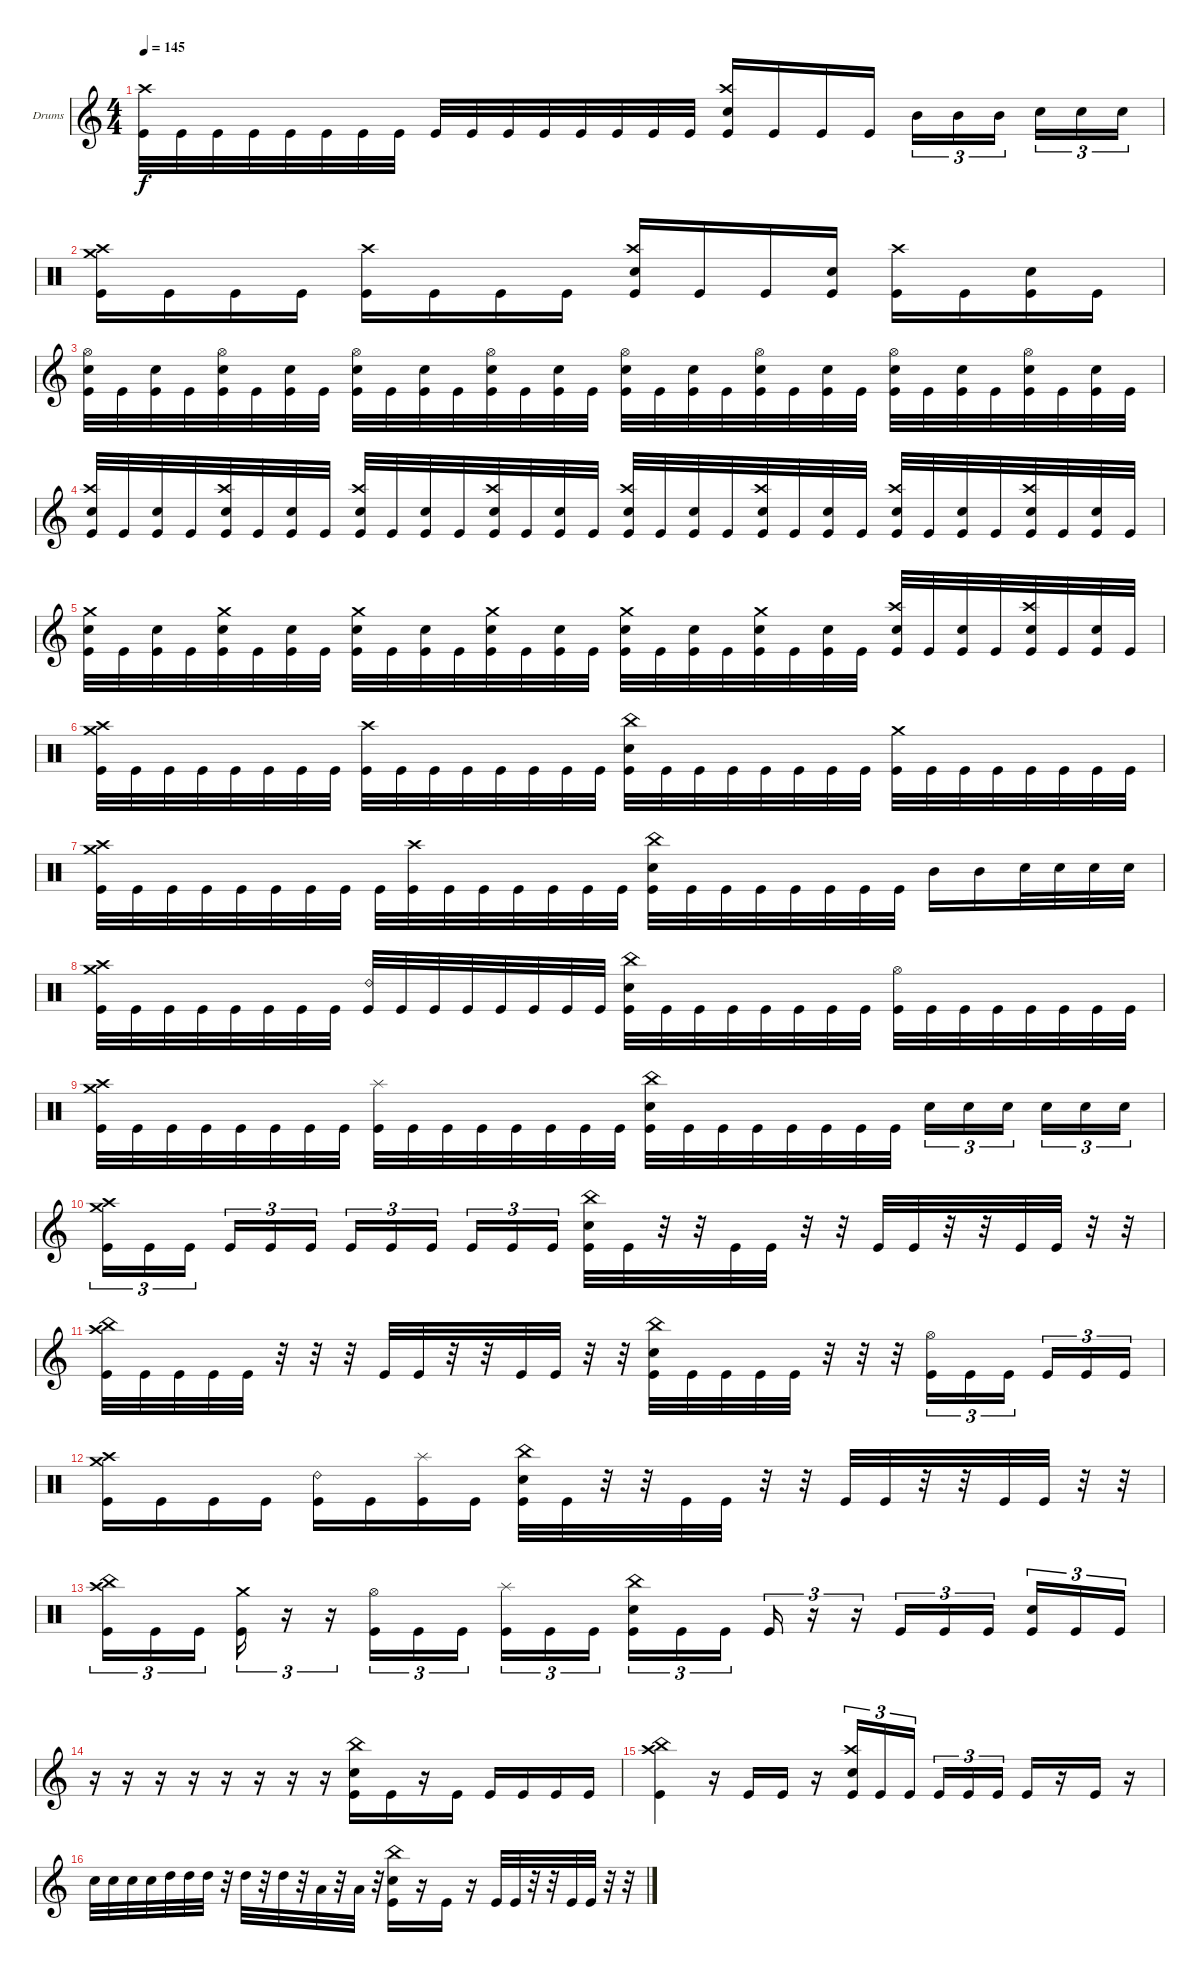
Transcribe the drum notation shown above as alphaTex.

\defaultSystemsLayout 4
\bracketExtendMode groupsimilarinstruments
\firstSystemTrackNameOrientation horizontal
\otherSystemsTrackNameOrientation horizontal
\track ("Drums" "Drums") {instrument percussion}
\staff {score}
\articulation defaults
\ts (4 4)
\tempo 145
\clef g2
\ks c
("Kick (hit)" "Crash high (hit)").32{dy f} "Kick (hit)".32 "Kick (hit)".32 "Kick (hit)".32 "Kick (hit)".32 "Kick (hit)".32 "Kick (hit)".32 "Kick (hit)".32 "Kick (hit)".32 "Kick (hit)".32 "Kick (hit)".32 "Kick (hit)".32 "Kick (hit)".32 "Kick (hit)".32 "Kick (hit)".32 "Kick (hit)".32 ("Kick (hit)" "Snare (hit) 2" "Crash high (hit)").16 "Kick (hit)".16 "Kick (hit)".16 "Kick (hit)".16 "Mid Tom (hit)".16{tu (3 2)} "Mid Tom (hit)".16{tu (3 2)} "Mid Tom (hit)".16{tu (3 2)} "Snare (hit) 2".16{tu (3 2)} "Snare (hit) 2".16{tu (3 2)} "Snare (hit) 2".16{tu (3 2)} |
\clef neutral
("Kick (hit)" "Crash high (hit)" "Crash medium (hit)").16 "Kick (hit)".16 "Kick (hit)".16 "Kick (hit)".16 ("Kick (hit)" "Crash high (hit)").16 "Kick (hit)".16 "Kick (hit)".16 "Kick (hit)".16 ("Kick (hit)" "Crash high (hit)" "Snare (hit) 2").16 "Kick (hit)".16 "Kick (hit)".16 ("Kick (hit)" "Snare (hit) 2").16 ("Kick (hit)" "Crash high (hit)").16 "Kick (hit)".16 ("Kick (hit)" "Snare (hit) 2").16 "Kick (hit)".16 |
\clef g2
("Snare (hit) 2" "Hi-Hat (open)" "Kick (hit)").32 "Kick (hit)".32 ("Kick (hit)" "Snare (hit) 2").32 "Kick (hit)".32 ("Snare (hit) 2" "Hi-Hat (open)" "Kick (hit)").32 "Kick (hit)".32 ("Kick (hit)" "Snare (hit) 2").32 "Kick (hit)".32 ("Snare (hit) 2" "Hi-Hat (open)" "Kick (hit)").32 "Kick (hit)".32 ("Kick (hit)" "Snare (hit) 2").32 "Kick (hit)".32 ("Snare (hit) 2" "Hi-Hat (open)" "Kick (hit)").32 "Kick (hit)".32 ("Kick (hit)" "Snare (hit) 2").32 "Kick (hit)".32 ("Snare (hit) 2" "Hi-Hat (open)" "Kick (hit)").32 "Kick (hit)".32 ("Kick (hit)" "Snare (hit) 2").32 "Kick (hit)".32 ("Snare (hit) 2" "Hi-Hat (open)" "Kick (hit)").32 "Kick (hit)".32 ("Kick (hit)" "Snare (hit) 2").32 "Kick (hit)".32 ("Snare (hit) 2" "Hi-Hat (open)" "Kick (hit)").32 "Kick (hit)".32 ("Kick (hit)" "Snare (hit) 2").32 "Kick (hit)".32 ("Snare (hit) 2" "Hi-Hat (open)" "Kick (hit)").32 "Kick (hit)".32 ("Kick (hit)" "Snare (hit) 2").32 "Kick (hit)".32 |
("Snare (hit) 2" "Crash high (hit)" "Kick (hit)").32 "Kick (hit)".32 ("Kick (hit)" "Snare (hit) 2").32 "Kick (hit)".32 ("Snare (hit) 2" "Crash high (hit)" "Kick (hit)").32 "Kick (hit)".32 ("Kick (hit)" "Snare (hit) 2").32 "Kick (hit)".32 ("Snare (hit) 2" "Crash high (hit)" "Kick (hit)").32 "Kick (hit)".32 ("Kick (hit)" "Snare (hit) 2").32 "Kick (hit)".32 ("Snare (hit) 2" "Crash high (hit)" "Kick (hit)").32 "Kick (hit)".32 ("Kick (hit)" "Snare (hit) 2").32 "Kick (hit)".32 ("Snare (hit) 2" "Crash high (hit)" "Kick (hit)").32 "Kick (hit)".32 ("Kick (hit)" "Snare (hit) 2").32 "Kick (hit)".32 ("Snare (hit) 2" "Crash high (hit)" "Kick (hit)").32 "Kick (hit)".32 ("Kick (hit)" "Snare (hit) 2").32 "Kick (hit)".32 ("Snare (hit) 2" "Crash high (hit)" "Kick (hit)").32 "Kick (hit)".32 ("Kick (hit)" "Snare (hit) 2").32 "Kick (hit)".32 ("Snare (hit) 2" "Crash high (hit)" "Kick (hit)").32 "Kick (hit)".32 ("Kick (hit)" "Snare (hit) 2").32 "Kick (hit)".32 |
("Snare (hit) 2" "Crash medium (hit)" "Kick (hit)").32 "Kick (hit)".32 ("Kick (hit)" "Snare (hit) 2").32 "Kick (hit)".32 ("Snare (hit) 2" "Crash medium (hit)" "Kick (hit)").32 "Kick (hit)".32 ("Kick (hit)" "Snare (hit) 2").32 "Kick (hit)".32 ("Snare (hit) 2" "Crash medium (hit)" "Kick (hit)").32 "Kick (hit)".32 ("Kick (hit)" "Snare (hit) 2").32 "Kick (hit)".32 ("Snare (hit) 2" "Crash medium (hit)" "Kick (hit)").32 "Kick (hit)".32 ("Kick (hit)" "Snare (hit) 2").32 "Kick (hit)".32 ("Snare (hit) 2" "Crash medium (hit)" "Kick (hit)").32 "Kick (hit)".32 ("Kick (hit)" "Snare (hit) 2").32 "Kick (hit)".32 ("Snare (hit) 2" "Crash medium (hit)" "Kick (hit)").32 "Kick (hit)".32 ("Kick (hit)" "Snare (hit) 2").32 "Kick (hit)".32 ("Snare (hit) 2" "Crash high (hit)" "Kick (hit)").32 "Kick (hit)".32 ("Kick (hit)" "Snare (hit) 2").32 "Kick (hit)".32 ("Snare (hit) 2" "Crash high (hit)" "Kick (hit)").32 "Kick (hit)".32 ("Kick (hit)" "Snare (hit) 2").32 "Kick (hit)".32 |
\clef neutral
("Kick (hit)" "Crash high (hit)" "Crash medium (hit)").32 "Kick (hit)".32 "Kick (hit)".32 "Kick (hit)".32 "Kick (hit)".32 "Kick (hit)".32 "Kick (hit)".32 "Kick (hit)".32 ("Kick (hit)" "Crash high (hit)").32 "Kick (hit)".32 "Kick (hit)".32 "Kick (hit)".32 "Kick (hit)".32 "Kick (hit)".32 "Kick (hit)".32 "Kick (hit)".32 ("Kick (hit)" "China (hit)" "Snare (hit) 2").32 "Kick (hit)".32 "Kick (hit)".32 "Kick (hit)".32 "Kick (hit)".32 "Kick (hit)".32 "Kick (hit)".32 "Kick (hit)".32 ("Kick (hit)" "Crash medium (hit)").32 "Kick (hit)".32 "Kick (hit)".32 "Kick (hit)".32 "Kick (hit)".32 "Kick (hit)".32 "Kick (hit)".32 "Kick (hit)".32 |
("Kick (hit)" "Crash high (hit)" "Crash medium (hit)").32 "Kick (hit)".32 "Kick (hit)".32 "Kick (hit)".32 "Kick (hit)".32 "Kick (hit)".32 "Kick (hit)".32 "Kick (hit)".32 "Kick (hit)".32 ("Kick (hit)" "Crash high (hit)").32 "Kick (hit)".32 "Kick (hit)".32 "Kick (hit)".32 "Kick (hit)".32 "Kick (hit)".32 "Kick (hit)".32 ("Kick (hit)" "China (hit)" "Snare (hit) 2").32 "Kick (hit)".32 "Kick (hit)".32 "Kick (hit)".32 "Kick (hit)".32 "Kick (hit)".32 "Kick (hit)".32 "Kick (hit)".32 "Mid Tom (hit)".16 "Mid Tom (hit)".16 "Snare (hit) 2".32 "Snare (hit) 2".32 "Snare (hit) 2".32 "Snare (hit) 2".32 |
("Kick (hit)" "Crash high (hit)" "Crash medium (hit)").32 "Kick (hit)".32 "Kick (hit)".32 "Kick (hit)".32 "Kick (hit)".32 "Kick (hit)".32 "Kick (hit)".32 "Kick (hit)".32 ("Kick (hit)" "Ride (bell) 2").32 "Kick (hit)".32 "Kick (hit)".32 "Kick (hit)".32 "Kick (hit)".32 "Kick (hit)".32 "Kick (hit)".32 "Kick (hit)".32 ("Kick (hit)" "China (hit)" "Snare (hit) 2").32 "Kick (hit)".32 "Kick (hit)".32 "Kick (hit)".32 "Kick (hit)".32 "Kick (hit)".32 "Kick (hit)".32 "Kick (hit)".32 ("Kick (hit)" "Hi-Hat (open)").32 "Kick (hit)".32 "Kick (hit)".32 "Kick (hit)".32 "Kick (hit)".32 "Kick (hit)".32 "Kick (hit)".32 "Kick (hit)".32 |
("Kick (hit)" "Crash high (hit)" "Crash medium (hit)").32 "Kick (hit)".32 "Kick (hit)".32 "Kick (hit)".32 "Kick (hit)".32 "Kick (hit)".32 "Kick (hit)".32 "Kick (hit)".32 ("Kick (hit)" "Splash (hit)").32 "Kick (hit)".32 "Kick (hit)".32 "Kick (hit)".32 "Kick (hit)".32 "Kick (hit)".32 "Kick (hit)".32 "Kick (hit)".32 ("Kick (hit)" "China (hit)" "Snare (hit) 2").32 "Kick (hit)".32 "Kick (hit)".32 "Kick (hit)".32 "Kick (hit)".32 "Kick (hit)".32 "Kick (hit)".32 "Kick (hit)".32 "Snare (hit) 2".16{tu (3 2)} "Snare (hit) 2".16{tu (3 2)} "Snare (hit) 2".16{tu (3 2)} "Snare (hit) 2".16{tu (3 2)} "Snare (hit) 2".16{tu (3 2)} "Snare (hit) 2".16{tu (3 2)} |
\clef g2
("Kick (hit)" "Crash high (hit)" "Crash medium (hit)").16{tu (3 2)} "Kick (hit)".16{tu (3 2)} "Kick (hit)".16{tu (3 2)} "Kick (hit)".16{tu (3 2)} "Kick (hit)".16{tu (3 2)} "Kick (hit)".16{tu (3 2)} "Kick (hit)".16{tu (3 2)} "Kick (hit)".16{tu (3 2)} "Kick (hit)".16{tu (3 2)} "Kick (hit)".16{tu (3 2)} "Kick (hit)".16{tu (3 2)} "Kick (hit)".16{tu (3 2)} ("Kick (hit)" "Snare (hit) 2" "China (hit)").32 "Kick (hit)".32 r.32 r.32 "Kick (hit)".32 "Kick (hit)".32 r.32 r.32 "Kick (hit)".32 "Kick (hit)".32 r.32 r.32 "Kick (hit)".32 "Kick (hit)".32 r.32 r.32 |
("Kick (hit)" "China (hit)" "Crash high (hit)").32 "Kick (hit)".32 "Kick (hit)".32 "Kick (hit)".32 "Kick (hit)".32 r.32 r.32 r.32 "Kick (hit)".32 "Kick (hit)".32 r.32 r.32 "Kick (hit)".32 "Kick (hit)".32 r.32 r.32 ("Kick (hit)" "Snare (hit) 2" "China (hit)").32 "Kick (hit)".32 "Kick (hit)".32 "Kick (hit)".32 "Kick (hit)".32 r.32 r.32 r.32 ("Kick (hit)" "Hi-Hat (open)").16{tu (3 2)} "Kick (hit)".16{tu (3 2)} "Kick (hit)".16{tu (3 2)} "Kick (hit)".16{tu (3 2)} "Kick (hit)".16{tu (3 2)} "Kick (hit)".16{tu (3 2)} |
\clef neutral
("Kick (hit)" "Crash high (hit)" "Crash medium (hit)").16 "Kick (hit)".16 "Kick (hit)".16 "Kick (hit)".16 ("Kick (hit)" "Ride (bell) 2").16 "Kick (hit)".16 ("Kick (hit)" "Splash (hit)").16 "Kick (hit)".16 ("Kick (hit)" "Snare (hit) 2" "China (hit)").32 "Kick (hit)".32 r.32 r.32 "Kick (hit)".32 "Kick (hit)".32 r.32 r.32 "Kick (hit)".32 "Kick (hit)".32 r.32 r.32 "Kick (hit)".32 "Kick (hit)".32 r.32 r.32 |
("Kick (hit)" "Crash high (hit)" "China (hit)").16{tu (3 2)} "Kick (hit)".16{tu (3 2)} "Kick (hit)".16{tu (3 2)} ("Kick (hit)" "Crash medium (hit)").16{tu (3 2)} r.16{tu (3 2)} r.16{tu (3 2)} ("Kick (hit)" "Hi-Hat (open)").16{tu (3 2)} "Kick (hit)".16{tu (3 2)} "Kick (hit)".16{tu (3 2)} ("Kick (hit)" "Splash (hit)").16{tu (3 2)} "Kick (hit)".16{tu (3 2)} "Kick (hit)".16{tu (3 2)} ("Kick (hit)" "Snare (hit) 2" "China (hit)").16{tu (3 2)} "Kick (hit)".16{tu (3 2)} "Kick (hit)".16{tu (3 2)} "Kick (hit)".16{tu (3 2)} r.16{tu (3 2)} r.16{tu (3 2)} "Kick (hit)".16{tu (3 2)} "Kick (hit)".16{tu (3 2)} "Kick (hit)".16{tu (3 2)} ("Kick (hit)" "Snare (hit) 2").16{tu (3 2)} "Kick (hit)".16{tu (3 2)} "Kick (hit)".16{tu (3 2)} |
\clef g2
r.16 r.16 r.16 r.16 r.16 r.16 r.16 r.16 ("Kick (hit)" "Snare (hit) 2" "China (hit)").16 "Kick (hit)".16 r.16 "Kick (hit)".16 "Kick (hit)".16 "Kick (hit)".16 "Kick (hit)".16 "Kick (hit)".16 |
("Crash high (hit)" "China (hit)" "Kick (hit)").4 r.16 "Kick (hit)".16 "Kick (hit)".16 r.16 ("Kick (hit)" "Snare (hit) 2" "Crash high (hit)").16{tu (3 2)} "Kick (hit)".16{tu (3 2)} "Kick (hit)".16{tu (3 2)} "Kick (hit)".16{tu (3 2)} "Kick (hit)".16{tu (3 2)} "Kick (hit)".16{tu (3 2)} "Kick (hit)".16 r.16 "Kick (hit)".16 r.16 |
"Snare (hit) 2".32 "Snare (hit) 2".32 "Snare (hit) 2".32 "Snare (hit) 2".32 "High Tom (hit)".32 "High Tom (hit)".32 "High Tom (hit)".32 r.32 "High Tom (hit)".32 r.32 "High Tom (hit)".32 r.32 "Low Tom (hit)".32 r.32 "Low Tom (hit)".32 r.32 ("China (hit)" "Snare (hit) 2" "Kick (hit)").16 r.16 "Kick (hit)".16 r.16 "Kick (hit)".32 "Kick (hit)".32 r.32 r.32 "Kick (hit)".32 "Kick (hit)".32 r.32 r.32
